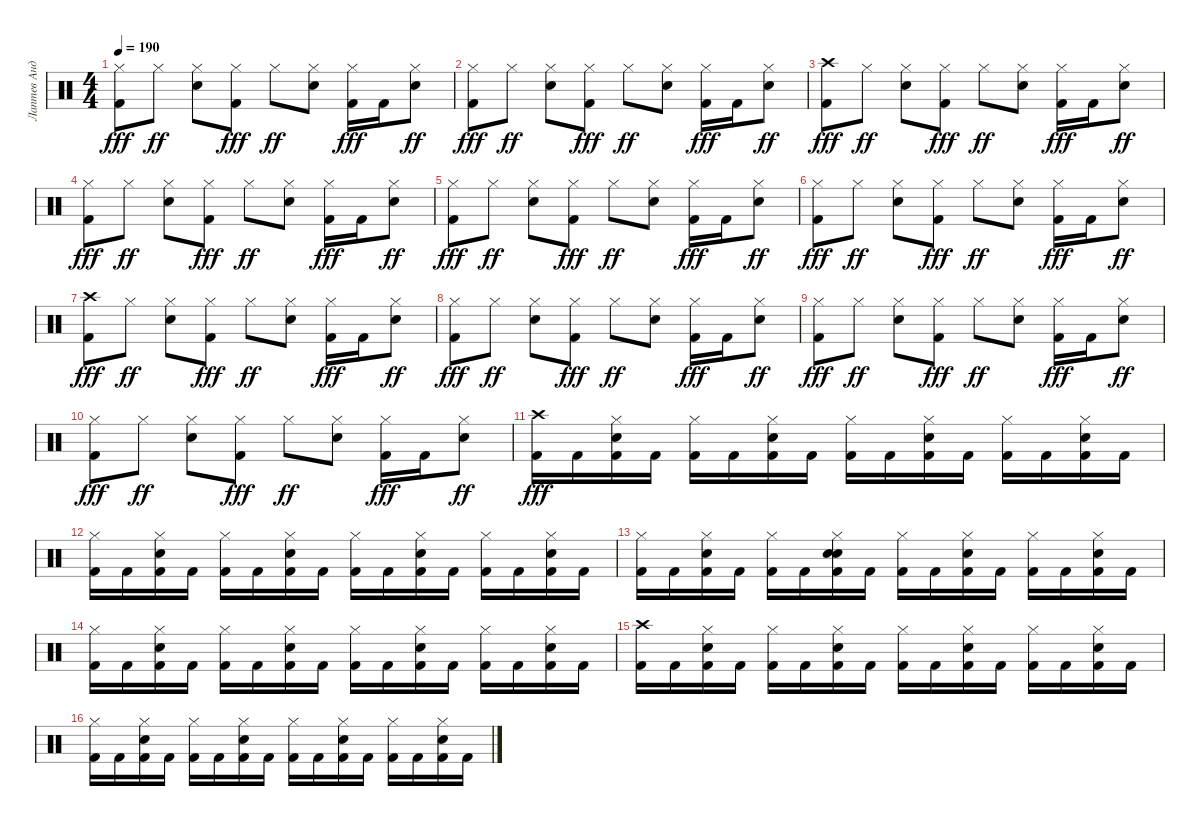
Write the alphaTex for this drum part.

\track ("Лаптев Андрей" "Лаптев Анд") {instrument percussion}
\staff {score}
\articulation defaults
\ts (4 4)
\tempo 190
\clef neutral
\ks c
("Hi-Hat (closed)" "Kick (hit) 2").8{dy fff} "Hi-Hat (closed)".8{dy ff} ("Electric Snare (hit)" "Hi-Hat (closed)").8 ("Hi-Hat (closed)" "Kick (hit) 2").8{dy fff} "Hi-Hat (closed)".8{dy ff} ("Electric Snare (hit)" "Hi-Hat (closed)").8 ("Hi-Hat (closed)" "Kick (hit) 2").16{dy fff} "Kick (hit) 2".16 ("Hi-Hat (closed)" "Electric Snare (hit)").8{dy ff} |
("Hi-Hat (closed)" "Kick (hit) 2").8{dy fff} "Hi-Hat (closed)".8{dy ff} ("Electric Snare (hit)" "Hi-Hat (closed)").8 ("Hi-Hat (closed)" "Kick (hit) 2").8{dy fff} "Hi-Hat (closed)".8{dy ff} ("Electric Snare (hit)" "Hi-Hat (closed)").8 ("Hi-Hat (closed)" "Kick (hit) 2").16{dy fff} "Kick (hit) 2".16 ("Hi-Hat (closed)" "Electric Snare (hit)").8{dy ff} |
("Crash high (hit)" "Kick (hit) 2").8{dy fff} "Hi-Hat (closed)".8{dy ff} ("Electric Snare (hit)" "Hi-Hat (closed)").8 ("Hi-Hat (closed)" "Kick (hit) 2").8{dy fff} "Hi-Hat (closed)".8{dy ff} ("Hi-Hat (closed)" "Electric Snare (hit)").8 ("Hi-Hat (closed)" "Kick (hit) 2").16{dy fff} "Kick (hit) 2".16 ("Hi-Hat (closed)" "Electric Snare (hit)").8{dy ff} |
("Hi-Hat (closed)" "Kick (hit) 2").8{dy fff} "Hi-Hat (closed)".8{dy ff} ("Electric Snare (hit)" "Hi-Hat (closed)").8 ("Hi-Hat (closed)" "Kick (hit) 2").8{dy fff} "Hi-Hat (closed)".8{dy ff} ("Electric Snare (hit)" "Hi-Hat (closed)").8 ("Hi-Hat (closed)" "Kick (hit) 2").16{dy fff} "Kick (hit) 2".16 ("Hi-Hat (closed)" "Electric Snare (hit)").8{dy ff} |
("Hi-Hat (closed)" "Kick (hit) 2").8{dy fff} "Hi-Hat (closed)".8{dy ff} ("Electric Snare (hit)" "Hi-Hat (closed)").8 ("Hi-Hat (closed)" "Kick (hit) 2").8{dy fff} "Hi-Hat (closed)".8{dy ff} ("Electric Snare (hit)" "Hi-Hat (closed)").8 ("Hi-Hat (closed)" "Kick (hit) 2").16{dy fff} "Kick (hit) 2".16 ("Hi-Hat (closed)" "Electric Snare (hit)").8{dy ff} |
("Hi-Hat (closed)" "Kick (hit) 2").8{dy fff} "Hi-Hat (closed)".8{dy ff} ("Electric Snare (hit)" "Hi-Hat (closed)").8 ("Hi-Hat (closed)" "Kick (hit) 2").8{dy fff} "Hi-Hat (closed)".8{dy ff} ("Electric Snare (hit)" "Hi-Hat (closed)").8 ("Hi-Hat (closed)" "Kick (hit) 2").16{dy fff} "Kick (hit) 2".16 ("Hi-Hat (closed)" "Electric Snare (hit)").8{dy ff} |
("Crash high (hit)" "Kick (hit) 2").8{dy fff} "Hi-Hat (closed)".8{dy ff} ("Electric Snare (hit)" "Hi-Hat (closed)").8 ("Hi-Hat (closed)" "Kick (hit) 2").8{dy fff} "Hi-Hat (closed)".8{dy ff} ("Hi-Hat (closed)" "Electric Snare (hit)").8 ("Hi-Hat (closed)" "Kick (hit) 2").16{dy fff} "Kick (hit) 2".16 ("Hi-Hat (closed)" "Electric Snare (hit)").8{dy ff} |
("Hi-Hat (closed)" "Kick (hit) 2").8{dy fff} "Hi-Hat (closed)".8{dy ff} ("Electric Snare (hit)" "Hi-Hat (closed)").8 ("Hi-Hat (closed)" "Kick (hit) 2").8{dy fff} "Hi-Hat (closed)".8{dy ff} ("Electric Snare (hit)" "Hi-Hat (closed)").8 ("Hi-Hat (closed)" "Kick (hit) 2").16{dy fff} "Kick (hit) 2".16 ("Hi-Hat (closed)" "Electric Snare (hit)").8{dy ff} |
("Hi-Hat (closed)" "Kick (hit) 2").8{dy fff} "Hi-Hat (closed)".8{dy ff} ("Electric Snare (hit)" "Hi-Hat (closed)").8 ("Hi-Hat (closed)" "Kick (hit) 2").8{dy fff} "Hi-Hat (closed)".8{dy ff} ("Electric Snare (hit)" "Hi-Hat (closed)").8 ("Hi-Hat (closed)" "Kick (hit) 2").16{dy fff} "Kick (hit) 2".16 ("Hi-Hat (closed)" "Electric Snare (hit)").8{dy ff} |
("Hi-Hat (closed)" "Kick (hit) 2").8{dy fff} "Hi-Hat (closed)".8{dy ff} ("Electric Snare (hit)" "Hi-Hat (closed)").8 ("Hi-Hat (closed)" "Kick (hit) 2").8{dy fff} "Hi-Hat (closed)".8{dy ff} ("Electric Snare (hit)" "Hi-Hat (closed)").8 ("Hi-Hat (closed)" "Kick (hit) 2").16{dy fff} "Kick (hit) 2".16 ("Hi-Hat (closed)" "Electric Snare (hit)").8{dy ff} |
("Crash high (hit)" "Kick (hit) 2").16{dy fff} "Kick (hit) 2".16 ("Electric Snare (hit)" "Hi-Hat (closed)" "Kick (hit) 2").16 "Kick (hit) 2".16 ("Hi-Hat (closed)" "Kick (hit) 2").16 "Kick (hit) 2".16 ("Hi-Hat (closed)" "Electric Snare (hit)" "Kick (hit) 2").16 "Kick (hit) 2".16 ("Hi-Hat (closed)" "Kick (hit) 2").16 "Kick (hit) 2".16 ("Electric Snare (hit)" "Hi-Hat (closed)" "Kick (hit) 2").16 "Kick (hit) 2".16 ("Hi-Hat (closed)" "Kick (hit) 2").16 "Kick (hit) 2".16 ("Hi-Hat (closed)" "Electric Snare (hit)" "Kick (hit) 2").16 "Kick (hit) 2".16 |
("Hi-Hat (closed)" "Kick (hit) 2").16 "Kick (hit) 2".16 ("Hi-Hat (closed)" "Electric Snare (hit)" "Kick (hit) 2").16 "Kick (hit) 2".16 ("Hi-Hat (closed)" "Kick (hit) 2").16 "Kick (hit) 2".16 ("Electric Snare (hit)" "Hi-Hat (closed)" "Kick (hit) 2").16 "Kick (hit) 2".16 ("Hi-Hat (closed)" "Kick (hit) 2").16 "Kick (hit) 2".16 ("Electric Snare (hit)" "Hi-Hat (closed)" "Kick (hit) 2").16 "Kick (hit) 2".16 ("Hi-Hat (closed)" "Kick (hit) 2").16 "Kick (hit) 2".16 ("Hi-Hat (closed)" "Electric Snare (hit)" "Kick (hit) 2").16 "Kick (hit) 2".16 |
("Hi-Hat (closed)" "Kick (hit) 2").16 "Kick (hit) 2".16 ("Electric Snare (hit)" "Hi-Hat (closed)" "Kick (hit) 2").16 "Kick (hit) 2".16 ("Hi-Hat (closed)" "Kick (hit) 2").16 "Kick (hit) 2".16 ("Electric Snare (hit)" "Electric Snare (hit)" "Hi-Hat (closed)" "Kick (hit) 2").16 "Kick (hit) 2".16 ("Hi-Hat (closed)" "Kick (hit) 2").16 "Kick (hit) 2".16 ("Electric Snare (hit)" "Hi-Hat (closed)" "Kick (hit) 2").16 "Kick (hit) 2".16 ("Hi-Hat (closed)" "Kick (hit) 2").16 "Kick (hit) 2".16 ("Electric Snare (hit)" "Hi-Hat (closed)" "Kick (hit) 2").16 "Kick (hit) 2".16 |
("Hi-Hat (closed)" "Kick (hit) 2").16 "Kick (hit) 2".16 ("Electric Snare (hit)" "Hi-Hat (closed)" "Kick (hit) 2").16 "Kick (hit) 2".16 ("Hi-Hat (closed)" "Kick (hit) 2").16 "Kick (hit) 2".16 ("Electric Snare (hit)" "Hi-Hat (closed)" "Kick (hit) 2").16 "Kick (hit) 2".16 ("Hi-Hat (closed)" "Kick (hit) 2").16 "Kick (hit) 2".16 ("Hi-Hat (closed)" "Electric Snare (hit)" "Kick (hit) 2").16 "Kick (hit) 2".16 ("Hi-Hat (closed)" "Kick (hit) 2").16 "Kick (hit) 2".16 ("Hi-Hat (closed)" "Electric Snare (hit)" "Kick (hit) 2").16 "Kick (hit) 2".16 |
("Crash high (hit)" "Kick (hit) 2").16 "Kick (hit) 2".16 ("Hi-Hat (closed)" "Electric Snare (hit)" "Kick (hit) 2").16 "Kick (hit) 2".16 ("Hi-Hat (closed)" "Kick (hit) 2").16 "Kick (hit) 2".16 ("Electric Snare (hit)" "Hi-Hat (closed)" "Kick (hit) 2").16 "Kick (hit) 2".16 ("Hi-Hat (closed)" "Kick (hit) 2").16 "Kick (hit) 2".16 ("Hi-Hat (closed)" "Electric Snare (hit)" "Kick (hit) 2").16 "Kick (hit) 2".16 ("Hi-Hat (closed)" "Kick (hit) 2").16 "Kick (hit) 2".16 ("Electric Snare (hit)" "Hi-Hat (closed)" "Kick (hit) 2").16 "Kick (hit) 2".16 |
("Hi-Hat (closed)" "Kick (hit) 2").16 "Kick (hit) 2".16 ("Hi-Hat (closed)" "Electric Snare (hit)" "Kick (hit) 2").16 "Kick (hit) 2".16 ("Hi-Hat (closed)" "Kick (hit) 2").16 "Kick (hit) 2".16 ("Electric Snare (hit)" "Hi-Hat (closed)" "Kick (hit) 2").16 "Kick (hit) 2".16 ("Hi-Hat (closed)" "Kick (hit) 2").16 "Kick (hit) 2".16 ("Electric Snare (hit)" "Hi-Hat (closed)" "Kick (hit) 2").16 "Kick (hit) 2".16 ("Hi-Hat (closed)" "Kick (hit) 2").16 "Kick (hit) 2".16 ("Hi-Hat (closed)" "Electric Snare (hit)" "Kick (hit) 2").16 "Kick (hit) 2".16
